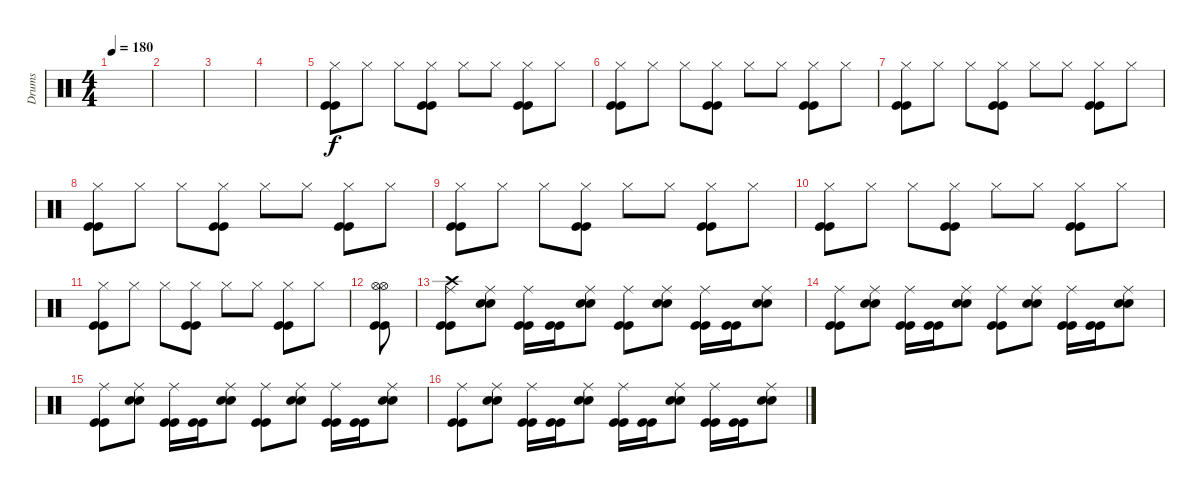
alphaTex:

\track ("Drums" "Drums") {instrument percussion}
\staff {score}
\articulation defaults
\ts (4 4)
\tempo 180
\clef neutral
\ks c
|
|
|
|
("Kick (hit)" "Kick (hit)" "Hi-Hat (closed)").8 "Hi-Hat (closed)".8 "Hi-Hat (closed)".8 ("Kick (hit)" "Kick (hit)" "Hi-Hat (closed)").8 "Hi-Hat (closed)".8 "Hi-Hat (closed)".8 ("Kick (hit)" "Kick (hit)" "Hi-Hat (closed)").8 "Hi-Hat (closed)".8 |
("Kick (hit)" "Kick (hit)" "Hi-Hat (closed)").8 "Hi-Hat (closed)".8 "Hi-Hat (closed)".8 ("Kick (hit)" "Kick (hit)" "Hi-Hat (closed)").8 "Hi-Hat (closed)".8 "Hi-Hat (closed)".8 ("Kick (hit)" "Kick (hit)" "Hi-Hat (closed)").8 "Hi-Hat (closed)".8 |
("Kick (hit)" "Kick (hit)" "Hi-Hat (closed)").8 "Hi-Hat (closed)".8 "Hi-Hat (closed)".8 ("Kick (hit)" "Kick (hit)" "Hi-Hat (closed)").8 "Hi-Hat (closed)".8 "Hi-Hat (closed)".8 ("Kick (hit)" "Kick (hit)" "Hi-Hat (closed)").8 "Hi-Hat (closed)".8 |
("Kick (hit)" "Kick (hit)" "Hi-Hat (closed)").8 "Hi-Hat (closed)".8 "Hi-Hat (closed)".8 ("Kick (hit)" "Kick (hit)" "Hi-Hat (closed)").8 "Hi-Hat (closed)".8 "Hi-Hat (closed)".8 ("Kick (hit)" "Kick (hit)" "Hi-Hat (closed)").8 "Hi-Hat (closed)".8 |
("Kick (hit)" "Kick (hit)" "Hi-Hat (closed)").8 "Hi-Hat (closed)".8 "Hi-Hat (closed)".8 ("Kick (hit)" "Kick (hit)" "Hi-Hat (closed)").8 "Hi-Hat (closed)".8 "Hi-Hat (closed)".8 ("Kick (hit)" "Kick (hit)" "Hi-Hat (closed)").8 "Hi-Hat (closed)".8 |
("Kick (hit)" "Kick (hit)" "Hi-Hat (closed)").8 "Hi-Hat (closed)".8 "Hi-Hat (closed)".8 ("Kick (hit)" "Kick (hit)" "Hi-Hat (closed)").8 "Hi-Hat (closed)".8 "Hi-Hat (closed)".8 ("Kick (hit)" "Kick (hit)" "Hi-Hat (closed)").8 "Hi-Hat (closed)".8 |
("Kick (hit)" "Kick (hit)" "Hi-Hat (closed)").8 "Hi-Hat (closed)".8 "Hi-Hat (closed)".8 ("Kick (hit)" "Kick (hit)" "Hi-Hat (closed)").8 "Hi-Hat (closed)".8 "Hi-Hat (closed)".8 ("Kick (hit)" "Kick (hit)" "Hi-Hat (closed)").8 "Hi-Hat (closed)".8 |
("Hi-Hat (open)" "Hi-Hat (open)" "Kick (hit)" "Kick (hit)").8 |
("Crash high (hit)" "Ride (middle)" "Kick (hit)" "Kick (hit)").8 ("Ride (middle)" "Snare (hit) 2" "Snare (hit) 2").8 ("Ride (middle)" "Kick (hit)" "Kick (hit)").16 ("Kick (hit)" "Kick (hit)").16 ("Ride (middle)" "Snare (hit) 2" "Snare (hit) 2").8 ("Ride (middle)" "Kick (hit)" "Kick (hit)").8 ("Ride (middle)" "Snare (hit) 2" "Snare (hit) 2").8 ("Ride (middle)" "Kick (hit)" "Kick (hit)").16 ("Kick (hit)" "Kick (hit)").16 ("Ride (middle)" "Snare (hit) 2" "Snare (hit) 2").8 |
("Ride (middle)" "Kick (hit)" "Kick (hit)").8 ("Ride (middle)" "Snare (hit) 2" "Snare (hit) 2").8 ("Ride (middle)" "Kick (hit)" "Kick (hit)").16 ("Kick (hit)" "Kick (hit)").16 ("Ride (middle)" "Snare (hit) 2" "Snare (hit) 2").8 ("Ride (middle)" "Kick (hit)" "Kick (hit)").8 ("Ride (middle)" "Snare (hit) 2" "Snare (hit) 2").8 ("Ride (middle)" "Kick (hit)" "Kick (hit)").16 ("Kick (hit)" "Kick (hit)").16 ("Ride (middle)" "Snare (hit) 2" "Snare (hit) 2").8 |
("Ride (middle)" "Kick (hit)" "Kick (hit)").8 ("Ride (middle)" "Snare (hit) 2" "Snare (hit) 2").8 ("Ride (middle)" "Kick (hit)" "Kick (hit)").16 ("Kick (hit)" "Kick (hit)").16 ("Ride (middle)" "Snare (hit) 2" "Snare (hit) 2").8 ("Ride (middle)" "Kick (hit)" "Kick (hit)").8 ("Ride (middle)" "Snare (hit) 2" "Snare (hit) 2").8 ("Ride (middle)" "Kick (hit)" "Kick (hit)").16 ("Kick (hit)" "Kick (hit)").16 ("Ride (middle)" "Snare (hit) 2" "Snare (hit) 2").8 |
("Ride (middle)" "Kick (hit)" "Kick (hit)").8 ("Ride (middle)" "Snare (hit) 2" "Snare (hit) 2").8 ("Ride (middle)" "Kick (hit)" "Kick (hit)").16 ("Kick (hit)" "Kick (hit)").16 ("Ride (middle)" "Snare (hit) 2" "Snare (hit) 2").8 ("Ride (middle)" "Kick (hit)" "Kick (hit)").16 ("Kick (hit)" "Kick (hit)").16 ("Ride (middle)" "Snare (hit) 2" "Snare (hit) 2").8 ("Ride (middle)" "Kick (hit)" "Kick (hit)").16 ("Kick (hit)" "Kick (hit)").16 ("Ride (middle)" "Snare (hit) 2" "Snare (hit) 2").8
